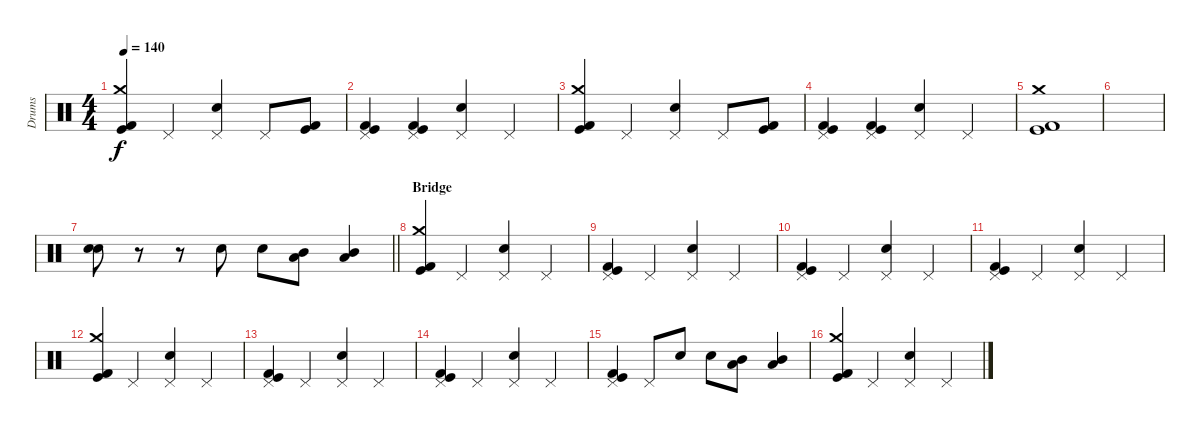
\track ("Drums" "Drums") {instrument percussion}
\staff {score}
\articulation defaults
\ts (4 4)
\tempo 140
\clef neutral
\ks c
("Kick (hit)" "Crash medium (hit)" "Kick (hit) 2").4{dy f} "Pedal Hi-Hat (hit)".4 ("Pedal Hi-Hat (hit)" "Snare (hit) 2").4 "Pedal Hi-Hat (hit)".8 ("Kick (hit)" "Kick (hit) 2").8 |
("Pedal Hi-Hat (hit)" "Kick (hit)" "Kick (hit) 2").4 ("Pedal Hi-Hat (hit)" "Kick (hit)" "Kick (hit) 2").4 ("Snare (hit) 2" "Pedal Hi-Hat (hit)").4 "Pedal Hi-Hat (hit)".4 |
("Kick (hit)" "Crash medium (hit)" "Kick (hit) 2").4 "Pedal Hi-Hat (hit)".4 ("Pedal Hi-Hat (hit)" "Snare (hit) 2").4 "Pedal Hi-Hat (hit)".8 ("Kick (hit)" "Kick (hit) 2").8 |
("Pedal Hi-Hat (hit)" "Kick (hit)" "Kick (hit) 2").4 ("Pedal Hi-Hat (hit)" "Kick (hit)" "Kick (hit) 2").4 ("Snare (hit) 2" "Pedal Hi-Hat (hit)").4 "Pedal Hi-Hat (hit)".4 |
("Crash medium (hit)" "Kick (hit)" "Kick (hit) 2").1 |
|
\barLineRight lightlight
("Snare (hit) 2" "Snare (hit) 2").8 r.8 r.8 "Snare (hit) 2".8 "Snare (hit) 2".8 ("Mid Tom (hit)" "Low Tom (hit)").8 ("Mid Tom (hit)" "Low Tom (hit)").4 |
\section ("" "Bridge")
("Kick (hit) 2" "Kick (hit)" "Crash medium (hit)").4 "Pedal Hi-Hat (hit)".4 ("Pedal Hi-Hat (hit)" "Snare (hit) 2").4 "Pedal Hi-Hat (hit)".4 |
("Kick (hit) 2" "Kick (hit)" "Pedal Hi-Hat (hit)").4 "Pedal Hi-Hat (hit)".4 ("Pedal Hi-Hat (hit)" "Snare (hit) 2").4 "Pedal Hi-Hat (hit)".4 |
("Kick (hit) 2" "Kick (hit)" "Pedal Hi-Hat (hit)").4 "Pedal Hi-Hat (hit)".4 ("Pedal Hi-Hat (hit)" "Snare (hit) 2").4 "Pedal Hi-Hat (hit)".4 |
("Kick (hit) 2" "Kick (hit)" "Pedal Hi-Hat (hit)").4 "Pedal Hi-Hat (hit)".4 ("Pedal Hi-Hat (hit)" "Snare (hit) 2").4 "Pedal Hi-Hat (hit)".4 |
("Kick (hit) 2" "Kick (hit)" "Crash medium (hit)").4 "Pedal Hi-Hat (hit)".4 ("Pedal Hi-Hat (hit)" "Snare (hit) 2").4 "Pedal Hi-Hat (hit)".4 |
("Kick (hit) 2" "Kick (hit)" "Pedal Hi-Hat (hit)").4 "Pedal Hi-Hat (hit)".4 ("Pedal Hi-Hat (hit)" "Snare (hit) 2").4 "Pedal Hi-Hat (hit)".4 |
("Kick (hit) 2" "Kick (hit)" "Pedal Hi-Hat (hit)").4 "Pedal Hi-Hat (hit)".4 ("Pedal Hi-Hat (hit)" "Snare (hit) 2").4 "Pedal Hi-Hat (hit)".4 |
("Kick (hit) 2" "Kick (hit)" "Pedal Hi-Hat (hit)").4 "Pedal Hi-Hat (hit)".8 "Snare (hit) 2".8 "Snare (hit) 2".8 ("Low Tom (hit)" "Mid Tom (hit)").8 ("Low Tom (hit)" "Mid Tom (hit)").4 |
("Kick (hit) 2" "Kick (hit)" "Crash medium (hit)").4 "Pedal Hi-Hat (hit)".4 ("Pedal Hi-Hat (hit)" "Snare (hit) 2").4 "Pedal Hi-Hat (hit)".4
